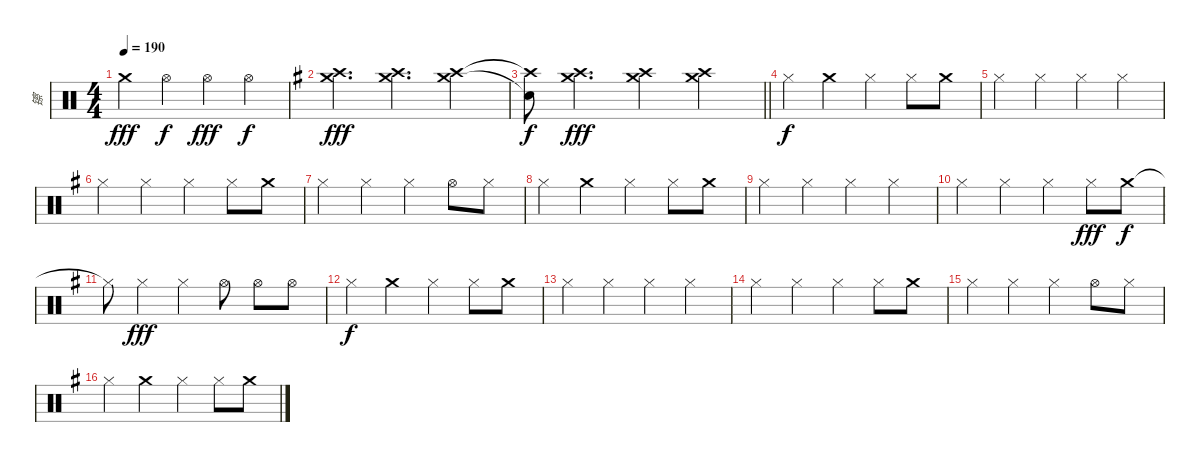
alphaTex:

\track ("镲" "镲") {instrument percussion}
\staff {score}
\articulation defaults
\ts (4 4)
\tempo 190
\clef neutral
\ks c "Crash medium (hit)".4{dy fff} "Hi-Hat (open)".4{dy f} "Hi-Hat (open)".4{dy fff} "Hi-Hat (open)".4{dy f}
|
\ks g
("Crash high (hit)" "Crash medium (hit)").4{d dy fff} ("Crash high (hit)" "Crash medium (hit)").4{d} ("Crash high (hit)" "Crash medium (hit)").4 |
\barLineRight lightlight
("Crash high (hit)"{t} "Snare (hit)"{t}).8{dy f} ("Crash high (hit)" "Crash medium (hit)").4{d dy fff} ("Crash high (hit)" "Crash medium (hit)").4 ("Crash high (hit)" "Crash medium (hit)").4 |
"Hi-Hat (closed)".4{dy f} "Crash medium (hit)".4 "Hi-Hat (closed)".4 "Hi-Hat (closed)".8 "Crash medium (hit)".8 |
"Hi-Hat (closed)".4 "Hi-Hat (closed)".4 "Hi-Hat (closed)".4 "Hi-Hat (closed)".4 |
"Hi-Hat (closed)".4 "Hi-Hat (closed)".4 "Hi-Hat (closed)".4 "Hi-Hat (closed)".8 "Crash medium (hit)".8 |
"Hi-Hat (closed)".4 "Hi-Hat (closed)".4 "Hi-Hat (closed)".4 "Hi-Hat (open)".8 "Hi-Hat (closed)".8 |
"Hi-Hat (closed)".4 "Crash medium (hit)".4 "Hi-Hat (closed)".4 "Hi-Hat (closed)".8 "Crash medium (hit)".8 |
"Hi-Hat (closed)".4 "Hi-Hat (closed)".4 "Hi-Hat (closed)".4 "Hi-Hat (closed)".4 |
"Hi-Hat (closed)".4 "Hi-Hat (closed)".4 "Hi-Hat (closed)".4 "Hi-Hat (closed)".8{dy fff} "Crash medium (hit)".8{dy f} |
"Hi-Hat (closed)"{t}.8 "Hi-Hat (closed)".4{dy fff} "Hi-Hat (closed)".4 "Hi-Hat (open)".8 "Hi-Hat (open)".8 "Hi-Hat (open)".8 |
"Hi-Hat (closed)".4{dy f} "Crash medium (hit)".4 "Hi-Hat (closed)".4 "Hi-Hat (closed)".8 "Crash medium (hit)".8 |
"Hi-Hat (closed)".4 "Hi-Hat (closed)".4 "Hi-Hat (closed)".4 "Hi-Hat (closed)".4 |
"Hi-Hat (closed)".4 "Hi-Hat (closed)".4 "Hi-Hat (closed)".4 "Hi-Hat (closed)".8 "Crash medium (hit)".8 |
"Hi-Hat (closed)".4 "Hi-Hat (closed)".4 "Hi-Hat (closed)".4 "Hi-Hat (open)".8 "Hi-Hat (closed)".8 |
"Hi-Hat (closed)".4 "Crash medium (hit)".4 "Hi-Hat (closed)".4 "Hi-Hat (closed)".8 "Crash medium (hit)".8
